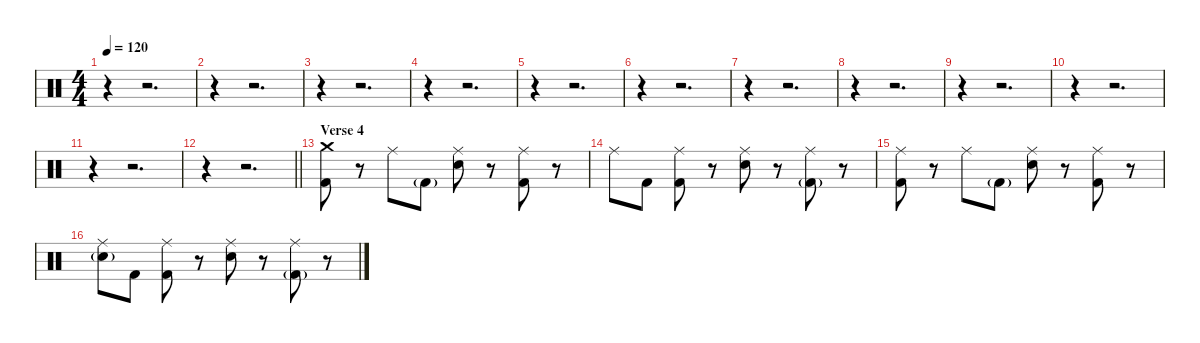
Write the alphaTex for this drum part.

\defaultSystemsLayout 4
\hideDynamics
\bracketExtendMode nobrackets
\singleTrackTrackNamePolicy hidden
\multiTrackTrackNamePolicy hidden
\firstSystemTrackNameMode fullname
\firstSystemTrackNameOrientation horizontal
\otherSystemsTrackNameOrientation horizontal
\track ("Martin Axenrot - Drums" "drm.") {instrument percussion}
\staff {score}
\articulation defaults
\ts (4 4)
\tempo 120
\clef neutral
\ks c
r.4{dy fff beam Down} r.2{d beam Down} |
r.4{beam Down} r.2{d beam Down} |
r.4{beam Down} r.2{d beam Down} |
r.4{beam Down} r.2{d beam Down} |
r.4{beam Down} r.2{d beam Down} |
r.4{beam Down} r.2{d beam Down} |
r.4{beam Down} r.2{d beam Down} |
r.4{beam Down} r.2{d beam Down} |
r.4{beam Down} r.2{d beam Down} |
r.4{beam Down} r.2{d beam Down} |
r.4{beam Down} r.2{d beam Down} |
\barLineRight lightlight
r.4{beam Down} r.2{d beam Down} |
\section ("" "Verse 4")
("Crash medium (hit)" "Kick (hit) 2").8{dy f beam Down} r.8{beam Down} "Ride (middle)".8{dy mf beam Down} "Kick (hit) 2"{g}.8{beam Down} ("Ride (middle)" "Snare (hit) 2").8{dy f beam Down} r.8{beam Down} ("Ride (middle)" "Kick (hit) 2").8{dy mf beam Down} r.8{beam Down} |
"Ride (middle)".8{dy f beam Down} "Kick (hit) 2".8{dy mf beam Down} ("Ride (middle)" "Kick (hit) 2").8{beam Down} r.8{beam Down} ("Ride (middle)" "Snare (hit) 2").8{dy f beam Down} r.8{beam Down} ("Ride (middle)" "Kick (hit) 2"{g}).8{dy mf beam Down} r.8{beam Down} |
("Ride (middle)" "Kick (hit) 2").8{dy f beam Down} r.8{beam Down} "Ride (middle)".8{dy mf beam Down} "Kick (hit) 2"{g}.8{beam Down} ("Ride (middle)" "Snare (hit) 2").8{dy f beam Down} r.8{beam Down} ("Ride (middle)" "Kick (hit) 2").8{dy mf beam Down} r.8{beam Down} |
("Ride (middle)" "Snare (hit) 2"{g}).8{dy f beam Down} "Kick (hit) 2".8{dy mf beam Down} ("Ride (middle)" "Kick (hit) 2").8{beam Down} r.8{beam Down} ("Ride (middle)" "Snare (hit) 2").8{dy f beam Down} r.8{beam Down} ("Ride (middle)" "Kick (hit) 2"{g}).8{dy mf beam Down} r.8{beam Down}
